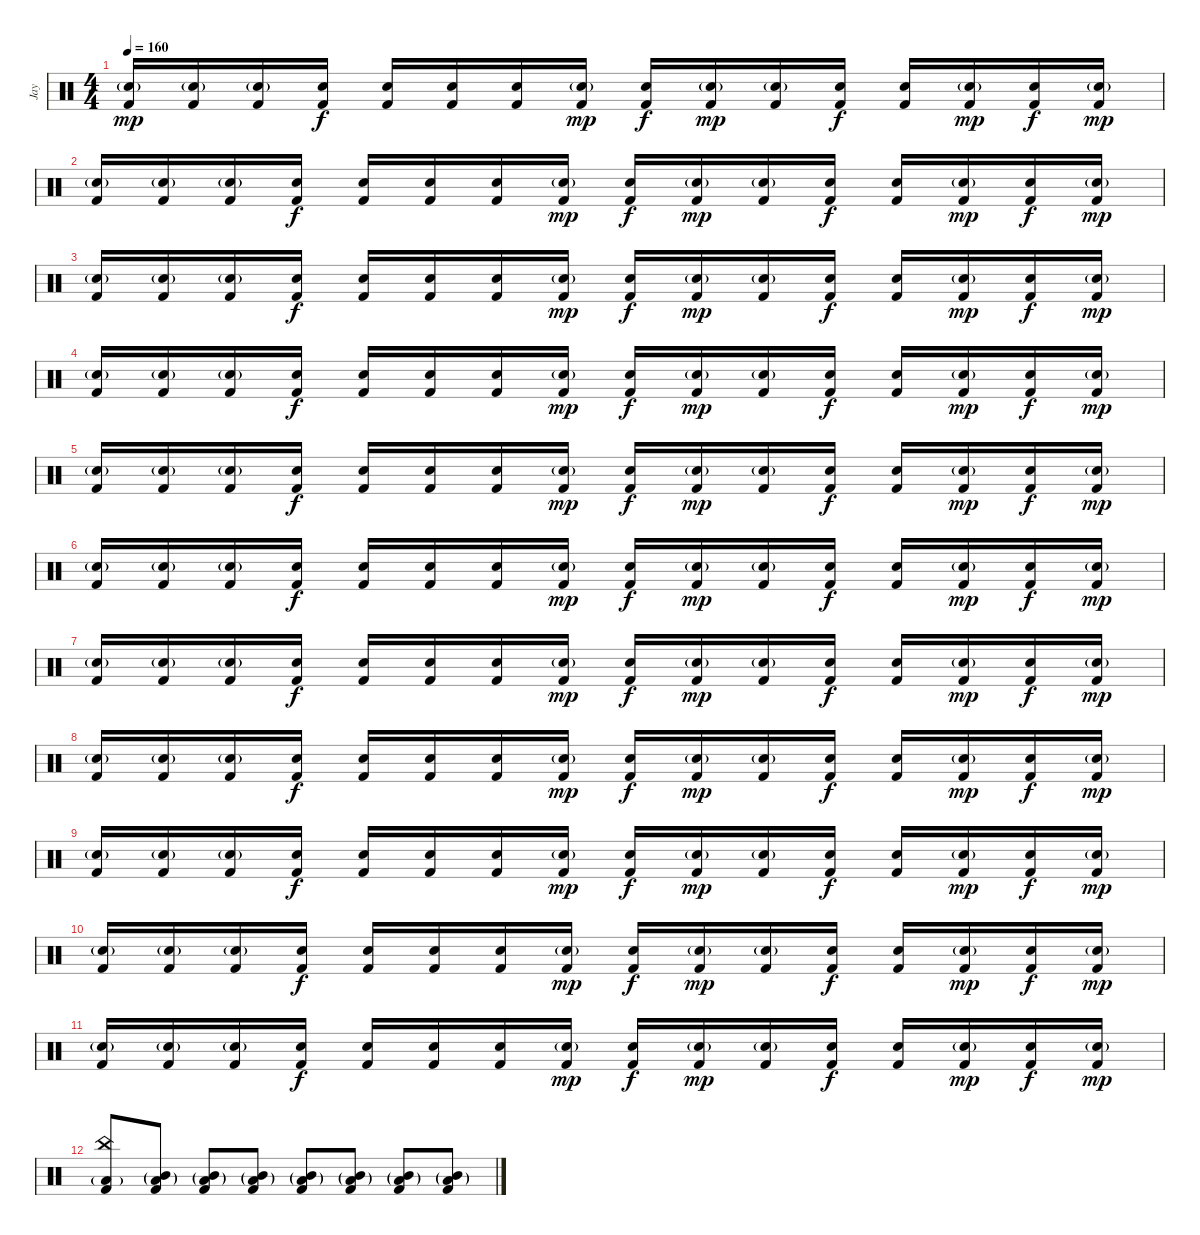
\track ("Jay" "Jay") {instrument percussion}
\staff {score}
\articulation defaults
\ts (4 4)
\tempo 160
\clef neutral
\ks c
("Electric Snare (hit)"{g} "Kick (hit) 2").16{dy mp} ("Electric Snare (hit)"{g} "Kick (hit) 2").16 ("Electric Snare (hit)"{g} "Kick (hit) 2").16 ("Electric Snare (hit)" "Kick (hit) 2").16{dy f} ("Electric Snare (hit)" "Kick (hit) 2").16 ("Electric Snare (hit)" "Kick (hit) 2").16 ("Electric Snare (hit)" "Kick (hit) 2").16 ("Electric Snare (hit)"{g} "Kick (hit) 2").16{dy mp} ("Electric Snare (hit)" "Kick (hit) 2").16{dy f} ("Electric Snare (hit)"{g} "Kick (hit) 2").16{dy mp} ("Electric Snare (hit)"{g} "Kick (hit) 2").16 ("Electric Snare (hit)" "Kick (hit) 2").16{dy f} ("Electric Snare (hit)" "Kick (hit) 2").16 ("Electric Snare (hit)"{g} "Kick (hit) 2").16{dy mp} ("Electric Snare (hit)" "Kick (hit) 2").16{dy f} ("Electric Snare (hit)"{g} "Kick (hit) 2").16{dy mp} |
("Electric Snare (hit)"{g} "Kick (hit) 2").16 ("Electric Snare (hit)"{g} "Kick (hit) 2").16 ("Electric Snare (hit)"{g} "Kick (hit) 2").16 ("Electric Snare (hit)" "Kick (hit) 2").16{dy f} ("Electric Snare (hit)" "Kick (hit) 2").16 ("Electric Snare (hit)" "Kick (hit) 2").16 ("Electric Snare (hit)" "Kick (hit) 2").16 ("Electric Snare (hit)"{g} "Kick (hit) 2").16{dy mp} ("Electric Snare (hit)" "Kick (hit) 2").16{dy f} ("Electric Snare (hit)"{g} "Kick (hit) 2").16{dy mp} ("Electric Snare (hit)"{g} "Kick (hit) 2").16 ("Electric Snare (hit)" "Kick (hit) 2").16{dy f} ("Electric Snare (hit)" "Kick (hit) 2").16 ("Electric Snare (hit)"{g} "Kick (hit) 2").16{dy mp} ("Electric Snare (hit)" "Kick (hit) 2").16{dy f} ("Electric Snare (hit)"{g} "Kick (hit) 2").16{dy mp} |
("Electric Snare (hit)"{g} "Kick (hit) 2").16 ("Electric Snare (hit)"{g} "Kick (hit) 2").16 ("Electric Snare (hit)"{g} "Kick (hit) 2").16 ("Electric Snare (hit)" "Kick (hit) 2").16{dy f} ("Electric Snare (hit)" "Kick (hit) 2").16 ("Electric Snare (hit)" "Kick (hit) 2").16 ("Electric Snare (hit)" "Kick (hit) 2").16 ("Electric Snare (hit)"{g} "Kick (hit) 2").16{dy mp} ("Electric Snare (hit)" "Kick (hit) 2").16{dy f} ("Electric Snare (hit)"{g} "Kick (hit) 2").16{dy mp} ("Electric Snare (hit)"{g} "Kick (hit) 2").16 ("Electric Snare (hit)" "Kick (hit) 2").16{dy f} ("Electric Snare (hit)" "Kick (hit) 2").16 ("Electric Snare (hit)"{g} "Kick (hit) 2").16{dy mp} ("Electric Snare (hit)" "Kick (hit) 2").16{dy f} ("Electric Snare (hit)"{g} "Kick (hit) 2").16{dy mp} |
("Electric Snare (hit)"{g} "Kick (hit) 2").16 ("Electric Snare (hit)"{g} "Kick (hit) 2").16 ("Electric Snare (hit)"{g} "Kick (hit) 2").16 ("Electric Snare (hit)" "Kick (hit) 2").16{dy f} ("Electric Snare (hit)" "Kick (hit) 2").16 ("Electric Snare (hit)" "Kick (hit) 2").16 ("Electric Snare (hit)" "Kick (hit) 2").16 ("Electric Snare (hit)"{g} "Kick (hit) 2").16{dy mp} ("Electric Snare (hit)" "Kick (hit) 2").16{dy f} ("Electric Snare (hit)"{g} "Kick (hit) 2").16{dy mp} ("Electric Snare (hit)"{g} "Kick (hit) 2").16 ("Electric Snare (hit)" "Kick (hit) 2").16{dy f} ("Electric Snare (hit)" "Kick (hit) 2").16 ("Electric Snare (hit)"{g} "Kick (hit) 2").16{dy mp} ("Electric Snare (hit)" "Kick (hit) 2").16{dy f} ("Electric Snare (hit)"{g} "Kick (hit) 2").16{dy mp} |
("Electric Snare (hit)"{g} "Kick (hit) 2").16 ("Electric Snare (hit)"{g} "Kick (hit) 2").16 ("Electric Snare (hit)"{g} "Kick (hit) 2").16 ("Electric Snare (hit)" "Kick (hit) 2").16{dy f} ("Electric Snare (hit)" "Kick (hit) 2").16 ("Electric Snare (hit)" "Kick (hit) 2").16 ("Electric Snare (hit)" "Kick (hit) 2").16 ("Electric Snare (hit)"{g} "Kick (hit) 2").16{dy mp} ("Electric Snare (hit)" "Kick (hit) 2").16{dy f} ("Electric Snare (hit)"{g} "Kick (hit) 2").16{dy mp} ("Electric Snare (hit)"{g} "Kick (hit) 2").16 ("Electric Snare (hit)" "Kick (hit) 2").16{dy f} ("Electric Snare (hit)" "Kick (hit) 2").16 ("Electric Snare (hit)"{g} "Kick (hit) 2").16{dy mp} ("Electric Snare (hit)" "Kick (hit) 2").16{dy f} ("Electric Snare (hit)"{g} "Kick (hit) 2").16{dy mp} |
("Electric Snare (hit)"{g} "Kick (hit) 2").16 ("Electric Snare (hit)"{g} "Kick (hit) 2").16 ("Electric Snare (hit)"{g} "Kick (hit) 2").16 ("Electric Snare (hit)" "Kick (hit) 2").16{dy f} ("Electric Snare (hit)" "Kick (hit) 2").16 ("Electric Snare (hit)" "Kick (hit) 2").16 ("Electric Snare (hit)" "Kick (hit) 2").16 ("Electric Snare (hit)"{g} "Kick (hit) 2").16{dy mp} ("Electric Snare (hit)" "Kick (hit) 2").16{dy f} ("Electric Snare (hit)"{g} "Kick (hit) 2").16{dy mp} ("Electric Snare (hit)"{g} "Kick (hit) 2").16 ("Electric Snare (hit)" "Kick (hit) 2").16{dy f} ("Electric Snare (hit)" "Kick (hit) 2").16 ("Electric Snare (hit)"{g} "Kick (hit) 2").16{dy mp} ("Electric Snare (hit)" "Kick (hit) 2").16{dy f} ("Electric Snare (hit)"{g} "Kick (hit) 2").16{dy mp} |
("Electric Snare (hit)"{g} "Kick (hit) 2").16 ("Electric Snare (hit)"{g} "Kick (hit) 2").16 ("Electric Snare (hit)"{g} "Kick (hit) 2").16 ("Electric Snare (hit)" "Kick (hit) 2").16{dy f} ("Electric Snare (hit)" "Kick (hit) 2").16 ("Electric Snare (hit)" "Kick (hit) 2").16 ("Electric Snare (hit)" "Kick (hit) 2").16 ("Electric Snare (hit)"{g} "Kick (hit) 2").16{dy mp} ("Electric Snare (hit)" "Kick (hit) 2").16{dy f} ("Electric Snare (hit)"{g} "Kick (hit) 2").16{dy mp} ("Electric Snare (hit)"{g} "Kick (hit) 2").16 ("Electric Snare (hit)" "Kick (hit) 2").16{dy f} ("Electric Snare (hit)" "Kick (hit) 2").16 ("Electric Snare (hit)"{g} "Kick (hit) 2").16{dy mp} ("Electric Snare (hit)" "Kick (hit) 2").16{dy f} ("Electric Snare (hit)"{g} "Kick (hit) 2").16{dy mp} |
("Electric Snare (hit)"{g} "Kick (hit) 2").16 ("Electric Snare (hit)"{g} "Kick (hit) 2").16 ("Electric Snare (hit)"{g} "Kick (hit) 2").16 ("Electric Snare (hit)" "Kick (hit) 2").16{dy f} ("Electric Snare (hit)" "Kick (hit) 2").16 ("Electric Snare (hit)" "Kick (hit) 2").16 ("Electric Snare (hit)" "Kick (hit) 2").16 ("Electric Snare (hit)"{g} "Kick (hit) 2").16{dy mp} ("Electric Snare (hit)" "Kick (hit) 2").16{dy f} ("Electric Snare (hit)"{g} "Kick (hit) 2").16{dy mp} ("Electric Snare (hit)"{g} "Kick (hit) 2").16 ("Electric Snare (hit)" "Kick (hit) 2").16{dy f} ("Electric Snare (hit)" "Kick (hit) 2").16 ("Electric Snare (hit)"{g} "Kick (hit) 2").16{dy mp} ("Electric Snare (hit)" "Kick (hit) 2").16{dy f} ("Electric Snare (hit)"{g} "Kick (hit) 2").16{dy mp} |
("Electric Snare (hit)"{g} "Kick (hit) 2").16 ("Electric Snare (hit)"{g} "Kick (hit) 2").16 ("Electric Snare (hit)"{g} "Kick (hit) 2").16 ("Electric Snare (hit)" "Kick (hit) 2").16{dy f} ("Electric Snare (hit)" "Kick (hit) 2").16 ("Electric Snare (hit)" "Kick (hit) 2").16 ("Electric Snare (hit)" "Kick (hit) 2").16 ("Electric Snare (hit)"{g} "Kick (hit) 2").16{dy mp} ("Electric Snare (hit)" "Kick (hit) 2").16{dy f} ("Electric Snare (hit)"{g} "Kick (hit) 2").16{dy mp} ("Electric Snare (hit)"{g} "Kick (hit) 2").16 ("Electric Snare (hit)" "Kick (hit) 2").16{dy f} ("Electric Snare (hit)" "Kick (hit) 2").16 ("Electric Snare (hit)"{g} "Kick (hit) 2").16{dy mp} ("Electric Snare (hit)" "Kick (hit) 2").16{dy f} ("Electric Snare (hit)"{g} "Kick (hit) 2").16{dy mp} |
("Electric Snare (hit)"{g} "Kick (hit) 2").16 ("Electric Snare (hit)"{g} "Kick (hit) 2").16 ("Electric Snare (hit)"{g} "Kick (hit) 2").16 ("Electric Snare (hit)" "Kick (hit) 2").16{dy f} ("Electric Snare (hit)" "Kick (hit) 2").16 ("Electric Snare (hit)" "Kick (hit) 2").16 ("Electric Snare (hit)" "Kick (hit) 2").16 ("Electric Snare (hit)"{g} "Kick (hit) 2").16{dy mp} ("Electric Snare (hit)" "Kick (hit) 2").16{dy f} ("Electric Snare (hit)"{g} "Kick (hit) 2").16{dy mp} ("Electric Snare (hit)"{g} "Kick (hit) 2").16 ("Electric Snare (hit)" "Kick (hit) 2").16{dy f} ("Electric Snare (hit)" "Kick (hit) 2").16 ("Electric Snare (hit)"{g} "Kick (hit) 2").16{dy mp} ("Electric Snare (hit)" "Kick (hit) 2").16{dy f} ("Electric Snare (hit)"{g} "Kick (hit) 2").16{dy mp} |
("Electric Snare (hit)"{g} "Kick (hit) 2").16 ("Electric Snare (hit)"{g} "Kick (hit) 2").16 ("Electric Snare (hit)"{g} "Kick (hit) 2").16 ("Electric Snare (hit)" "Kick (hit) 2").16{dy f} ("Electric Snare (hit)" "Kick (hit) 2").16 ("Electric Snare (hit)" "Kick (hit) 2").16 ("Electric Snare (hit)" "Kick (hit) 2").16 ("Electric Snare (hit)"{g} "Kick (hit) 2").16{dy mp} ("Electric Snare (hit)" "Kick (hit) 2").16{dy f} ("Electric Snare (hit)"{g} "Kick (hit) 2").16{dy mp} ("Electric Snare (hit)"{g} "Kick (hit) 2").16 ("Electric Snare (hit)" "Kick (hit) 2").16{dy f} ("Electric Snare (hit)" "Kick (hit) 2").16 ("Electric Snare (hit)"{g} "Kick (hit) 2").16{dy mp} ("Electric Snare (hit)" "Kick (hit) 2").16{dy f} ("Electric Snare (hit)"{g} "Kick (hit) 2").16{dy mp} |
("China (hit)" "Low Tom (hit)"{g} "Kick (hit) 2").8 ("Low Tom (hit)"{g} "Mid Tom (hit)"{g} "Kick (hit) 2").8 ("Low Tom (hit)"{g} "Mid Tom (hit)"{g} "Kick (hit) 2").8 ("Low Tom (hit)"{g} "Mid Tom (hit)"{g} "Kick (hit) 2").8 ("Low Tom (hit)"{g} "Mid Tom (hit)"{g} "Kick (hit) 2").8 ("Low Tom (hit)"{g} "Mid Tom (hit)"{g} "Kick (hit) 2").8 ("Low Tom (hit)"{g} "Mid Tom (hit)"{g} "Kick (hit) 2").8 ("Low Tom (hit)"{g} "Mid Tom (hit)"{g} "Kick (hit) 2").8
